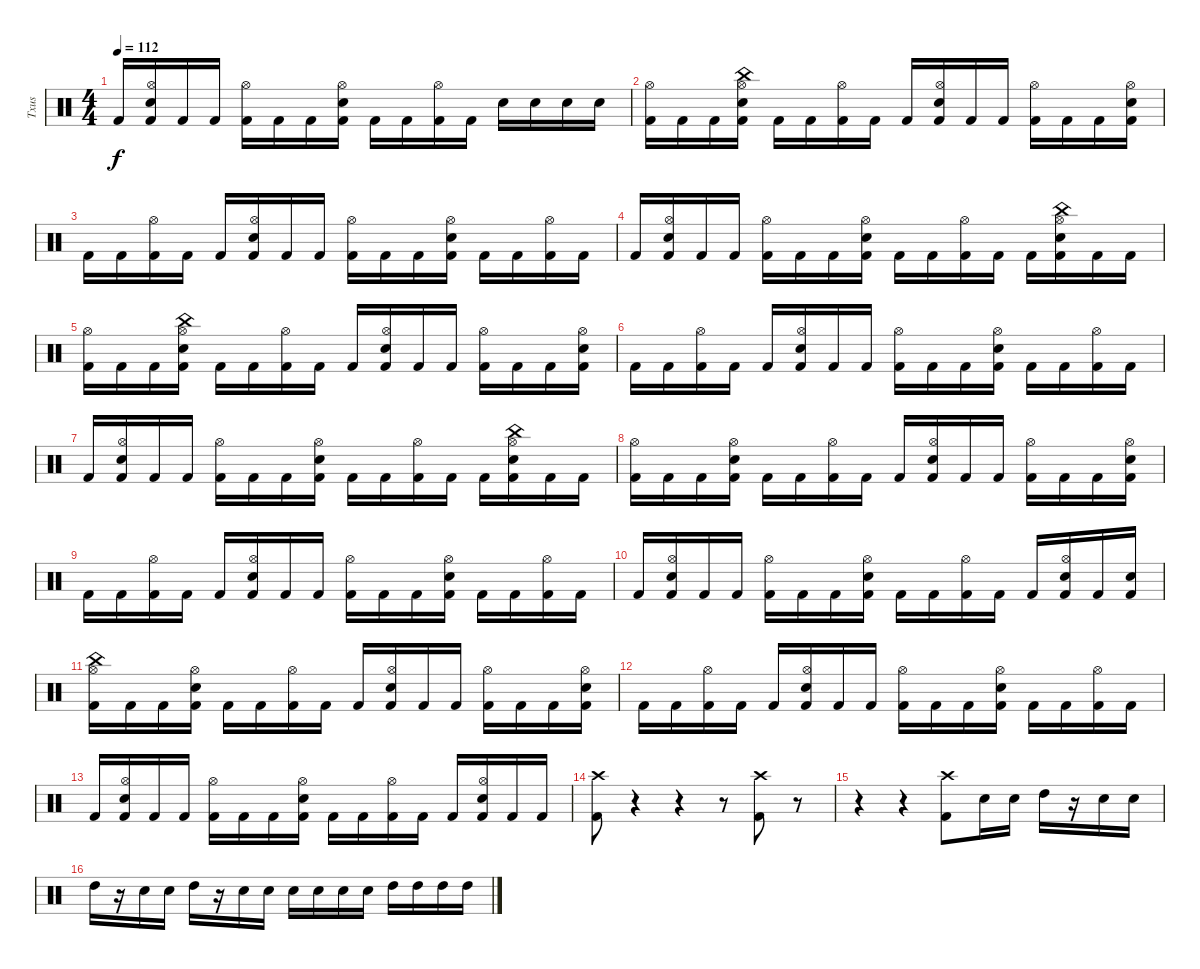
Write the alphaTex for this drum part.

\track ("Txus" "Txus") {instrument percussion}
\staff {score}
\articulation defaults
\ts (4 4)
\tempo 112
\clef neutral
\ks c "Kick (hit) 2".16{dy f}
("Kick (hit) 2" "Hi-Hat (open)" "Electric Snare (hit)").16 "Kick (hit) 2".16 "Kick (hit) 2".16 ("Kick (hit) 2" "Hi-Hat (open)").16 "Kick (hit) 2".16 "Kick (hit) 2".16 ("Kick (hit) 2" "Hi-Hat (open)" "Electric Snare (hit)").16 "Kick (hit) 2".16 "Kick (hit) 2".16 ("Kick (hit) 2" "Hi-Hat (open)").16 "Kick (hit) 2".16 "Electric Snare (hit)".16 "Electric Snare (hit)".16 "Electric Snare (hit)".16 "Electric Snare (hit)".16 |
("Kick (hit) 2" "Hi-Hat (open)").16 "Kick (hit) 2".16 "Kick (hit) 2".16 ("Kick (hit) 2" "Hi-Hat (open)" "Electric Snare (hit)" "China (hit)").16 "Kick (hit) 2".16 "Kick (hit) 2".16 ("Kick (hit) 2" "Hi-Hat (open)").16 "Kick (hit) 2".16 "Kick (hit) 2".16 ("Kick (hit) 2" "Hi-Hat (open)" "Electric Snare (hit)").16 "Kick (hit) 2".16 "Kick (hit) 2".16 ("Kick (hit) 2" "Hi-Hat (open)").16 "Kick (hit) 2".16 "Kick (hit) 2".16 ("Kick (hit) 2" "Hi-Hat (open)" "Electric Snare (hit)").16 |
"Kick (hit) 2".16 "Kick (hit) 2".16 ("Kick (hit) 2" "Hi-Hat (open)").16 "Kick (hit) 2".16 "Kick (hit) 2".16 ("Kick (hit) 2" "Hi-Hat (open)" "Electric Snare (hit)").16 "Kick (hit) 2".16 "Kick (hit) 2".16 ("Kick (hit) 2" "Hi-Hat (open)").16 "Kick (hit) 2".16 "Kick (hit) 2".16 ("Kick (hit) 2" "Hi-Hat (open)" "Electric Snare (hit)").16 "Kick (hit) 2".16 "Kick (hit) 2".16 ("Kick (hit) 2" "Hi-Hat (open)").16 "Kick (hit) 2".16 |
"Kick (hit) 2".16 ("Kick (hit) 2" "Hi-Hat (open)" "Electric Snare (hit)").16 "Kick (hit) 2".16 "Kick (hit) 2".16 ("Kick (hit) 2" "Hi-Hat (open)").16 "Kick (hit) 2".16 "Kick (hit) 2".16 ("Kick (hit) 2" "Hi-Hat (open)" "Electric Snare (hit)").16 "Kick (hit) 2".16 "Kick (hit) 2".16 ("Kick (hit) 2" "Hi-Hat (open)").16 "Kick (hit) 2".16 "Kick (hit) 2".16 ("Kick (hit) 2" "Hi-Hat (open)" "Electric Snare (hit)" "China (hit)").16 "Kick (hit) 2".16 "Kick (hit) 2".16 |
("Kick (hit) 2" "Hi-Hat (open)").16 "Kick (hit) 2".16 "Kick (hit) 2".16 ("Kick (hit) 2" "Hi-Hat (open)" "Electric Snare (hit)" "China (hit)").16 "Kick (hit) 2".16 "Kick (hit) 2".16 ("Kick (hit) 2" "Hi-Hat (open)").16 "Kick (hit) 2".16 "Kick (hit) 2".16 ("Kick (hit) 2" "Hi-Hat (open)" "Electric Snare (hit)").16 "Kick (hit) 2".16 "Kick (hit) 2".16 ("Kick (hit) 2" "Hi-Hat (open)").16 "Kick (hit) 2".16 "Kick (hit) 2".16 ("Kick (hit) 2" "Hi-Hat (open)" "Electric Snare (hit)").16 |
"Kick (hit) 2".16 "Kick (hit) 2".16 ("Kick (hit) 2" "Hi-Hat (open)").16 "Kick (hit) 2".16 "Kick (hit) 2".16 ("Kick (hit) 2" "Hi-Hat (open)" "Electric Snare (hit)").16 "Kick (hit) 2".16 "Kick (hit) 2".16 ("Kick (hit) 2" "Hi-Hat (open)").16 "Kick (hit) 2".16 "Kick (hit) 2".16 ("Kick (hit) 2" "Hi-Hat (open)" "Electric Snare (hit)").16 "Kick (hit) 2".16 "Kick (hit) 2".16 ("Kick (hit) 2" "Hi-Hat (open)").16 "Kick (hit) 2".16 |
"Kick (hit) 2".16 ("Kick (hit) 2" "Hi-Hat (open)" "Electric Snare (hit)").16 "Kick (hit) 2".16 "Kick (hit) 2".16 ("Kick (hit) 2" "Hi-Hat (open)").16 "Kick (hit) 2".16 "Kick (hit) 2".16 ("Kick (hit) 2" "Hi-Hat (open)" "Electric Snare (hit)").16 "Kick (hit) 2".16 "Kick (hit) 2".16 ("Kick (hit) 2" "Hi-Hat (open)").16 "Kick (hit) 2".16 "Kick (hit) 2".16 ("Kick (hit) 2" "Hi-Hat (open)" "Electric Snare (hit)" "China (hit)").16 "Kick (hit) 2".16 "Kick (hit) 2".16 |
("Kick (hit) 2" "Hi-Hat (open)").16 "Kick (hit) 2".16 "Kick (hit) 2".16 ("Kick (hit) 2" "Hi-Hat (open)" "Electric Snare (hit)").16 "Kick (hit) 2".16 "Kick (hit) 2".16 ("Kick (hit) 2" "Hi-Hat (open)").16 "Kick (hit) 2".16 "Kick (hit) 2".16 ("Kick (hit) 2" "Hi-Hat (open)" "Electric Snare (hit)").16 "Kick (hit) 2".16 "Kick (hit) 2".16 ("Kick (hit) 2" "Hi-Hat (open)").16 "Kick (hit) 2".16 "Kick (hit) 2".16 ("Kick (hit) 2" "Hi-Hat (open)" "Electric Snare (hit)").16 |
"Kick (hit) 2".16 "Kick (hit) 2".16 ("Kick (hit) 2" "Hi-Hat (open)").16 "Kick (hit) 2".16 "Kick (hit) 2".16 ("Kick (hit) 2" "Hi-Hat (open)" "Electric Snare (hit)").16 "Kick (hit) 2".16 "Kick (hit) 2".16 ("Kick (hit) 2" "Hi-Hat (open)").16 "Kick (hit) 2".16 "Kick (hit) 2".16 ("Kick (hit) 2" "Hi-Hat (open)" "Electric Snare (hit)").16 "Kick (hit) 2".16 "Kick (hit) 2".16 ("Kick (hit) 2" "Hi-Hat (open)").16 "Kick (hit) 2".16 |
"Kick (hit) 2".16 ("Kick (hit) 2" "Hi-Hat (open)" "Electric Snare (hit)").16 "Kick (hit) 2".16 "Kick (hit) 2".16 ("Kick (hit) 2" "Hi-Hat (open)").16 "Kick (hit) 2".16 "Kick (hit) 2".16 ("Kick (hit) 2" "Hi-Hat (open)" "Electric Snare (hit)").16 "Kick (hit) 2".16 "Kick (hit) 2".16 ("Kick (hit) 2" "Hi-Hat (open)").16 "Kick (hit) 2".16 "Kick (hit) 2".16 ("Kick (hit) 2" "Hi-Hat (open)" "Electric Snare (hit)").16 "Kick (hit) 2".16 ("Kick (hit) 2" "Electric Snare (hit)").16 |
("Kick (hit) 2" "Hi-Hat (open)" "China (hit)").16 "Kick (hit) 2".16 "Kick (hit) 2".16 ("Kick (hit) 2" "Hi-Hat (open)" "Electric Snare (hit)").16 "Kick (hit) 2".16 "Kick (hit) 2".16 ("Kick (hit) 2" "Hi-Hat (open)").16 "Kick (hit) 2".16 "Kick (hit) 2".16 ("Kick (hit) 2" "Hi-Hat (open)" "Electric Snare (hit)").16 "Kick (hit) 2".16 "Kick (hit) 2".16 ("Kick (hit) 2" "Hi-Hat (open)").16 "Kick (hit) 2".16 "Kick (hit) 2".16 ("Kick (hit) 2" "Hi-Hat (open)" "Electric Snare (hit)").16 |
"Kick (hit) 2".16 "Kick (hit) 2".16 ("Kick (hit) 2" "Hi-Hat (open)").16 "Kick (hit) 2".16 "Kick (hit) 2".16 ("Kick (hit) 2" "Hi-Hat (open)" "Electric Snare (hit)").16 "Kick (hit) 2".16 "Kick (hit) 2".16 ("Kick (hit) 2" "Hi-Hat (open)").16 "Kick (hit) 2".16 "Kick (hit) 2".16 ("Kick (hit) 2" "Hi-Hat (open)" "Electric Snare (hit)").16 "Kick (hit) 2".16 "Kick (hit) 2".16 ("Kick (hit) 2" "Hi-Hat (open)").16 "Kick (hit) 2".16 |
"Kick (hit) 2".16 ("Kick (hit) 2" "Hi-Hat (open)" "Electric Snare (hit)").16 "Kick (hit) 2".16 "Kick (hit) 2".16 ("Kick (hit) 2" "Hi-Hat (open)").16 "Kick (hit) 2".16 "Kick (hit) 2".16 ("Kick (hit) 2" "Hi-Hat (open)" "Electric Snare (hit)").16 "Kick (hit) 2".16 "Kick (hit) 2".16 ("Kick (hit) 2" "Hi-Hat (open)").16 "Kick (hit) 2".16 "Kick (hit) 2".16 ("Kick (hit) 2" "Hi-Hat (open)" "Electric Snare (hit)").16 "Kick (hit) 2".16 "Kick (hit) 2".16 |
("Kick (hit) 2" "Crash high (hit)").8 r.4 r.4 r.8 ("Kick (hit) 2" "Crash high (hit)").8 r.8 |
r.4 r.4 ("Kick (hit) 2" "Crash high (hit)").8 "Electric Snare (hit)".16 "Electric Snare (hit)".16 "High Tom (hit)".16 r.16 "Electric Snare (hit)".16 "Electric Snare (hit)".16 |
"High Tom (hit)".16 r.16 "Electric Snare (hit)".16 "Electric Snare (hit)".16 "High Tom (hit)".16 r.16 "Electric Snare (hit)".16 "Electric Snare (hit)".16 "Electric Snare (hit)".16 "Electric Snare (hit)".16 "Electric Snare (hit)".16 "Electric Snare (hit)".16 "High Tom (hit)".16 "High Tom (hit)".16 "High Tom (hit)".16 "High Tom (hit)".16
